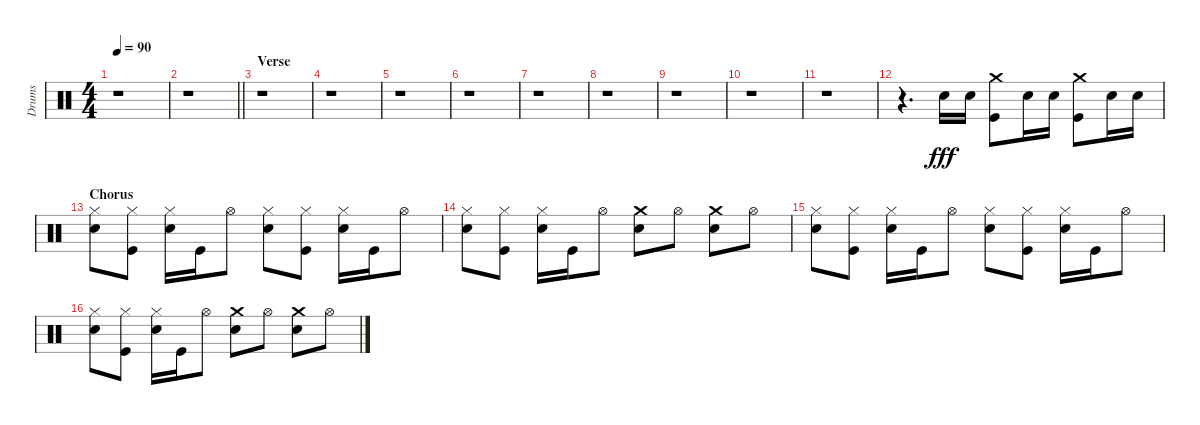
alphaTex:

\track ("Drums" "Drums") {instrument percussion}
\staff {score}
\articulation defaults
\ts (4 4)
\tempo 90
\clef neutral
\ks c
r.1{dy fff} |
\barLineRight lightlight
r.1 |
\section ("" "Verse")
r.1 |
r.1 |
r.1 |
r.1 |
r.1 |
r.1 |
r.1 |
r.1 |
r.1 |
r.4{d} "Snare (hit) 2".16 "Snare (hit) 2".16 ("Crash medium (hit)" "Kick (hit)").8 "Snare (hit) 2".16 "Snare (hit) 2".16 ("Crash medium (hit)" "Kick (hit)").8 "Snare (hit) 2".16 "Snare (hit) 2".16 |
\section ("" "Chorus")
("Hi-Hat (closed)" "Snare (hit) 2").8 ("Hi-Hat (closed)" "Kick (hit)").8 ("Hi-Hat (closed)" "Snare (hit) 2").16 "Kick (hit)".16 "Hi-Hat (open)".8 ("Hi-Hat (closed)" "Snare (hit) 2").8 ("Hi-Hat (closed)" "Kick (hit)").8 ("Hi-Hat (closed)" "Snare (hit) 2").16 "Kick (hit)".16 "Hi-Hat (open)".8 |
("Hi-Hat (closed)" "Snare (hit) 2").8 ("Hi-Hat (closed)" "Kick (hit)").8 ("Hi-Hat (closed)" "Snare (hit) 2").16 "Kick (hit)".16 "Hi-Hat (open)".8 ("Snare (hit) 2" "Crash medium (hit)").8 "Hi-Hat (open)".8 ("Snare (hit) 2" "Crash medium (hit)").8 "Hi-Hat (open)".8 |
("Hi-Hat (closed)" "Snare (hit) 2").8 ("Hi-Hat (closed)" "Kick (hit)").8 ("Hi-Hat (closed)" "Snare (hit) 2").16 "Kick (hit)".16 "Hi-Hat (open)".8 ("Hi-Hat (closed)" "Snare (hit) 2").8 ("Hi-Hat (closed)" "Kick (hit)").8 ("Hi-Hat (closed)" "Snare (hit) 2").16 "Kick (hit)".16 "Hi-Hat (open)".8 |
("Hi-Hat (closed)" "Snare (hit) 2").8 ("Hi-Hat (closed)" "Kick (hit)").8 ("Hi-Hat (closed)" "Snare (hit) 2").16 "Kick (hit)".16 "Hi-Hat (open)".8 ("Snare (hit) 2" "Crash medium (hit)").8 "Hi-Hat (open)".8 ("Snare (hit) 2" "Crash medium (hit)").8 "Hi-Hat (open)".8
